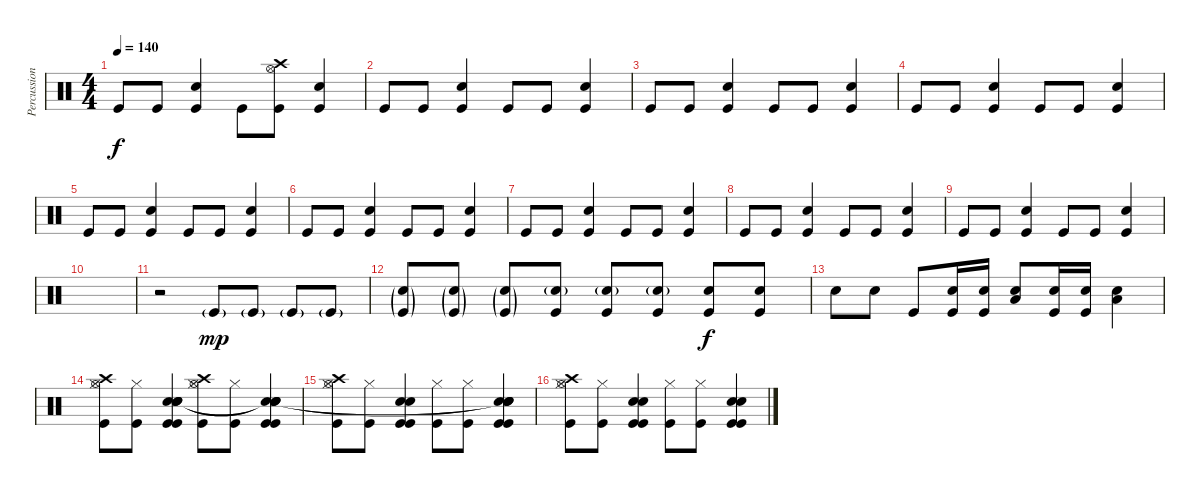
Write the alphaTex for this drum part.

\track ("Percussions" "Percussion") {instrument percussion}
\staff {score}
\articulation defaults
\ts (4 4)
\tempo 140
\clef neutral
\ks c "Kick (hit)".8{dy f} "Kick (hit)".8
("Kick (hit)" "Electric Snare (hit)").4 "Kick (hit)".8 ("Crash high (hit)" "Hi-Hat (open)" "Kick (hit)").8 ("Kick (hit)" "Electric Snare (hit)").4 |
"Kick (hit)".8 "Kick (hit)".8 ("Kick (hit)" "Electric Snare (hit)").4 "Kick (hit)".8 "Kick (hit)".8 ("Kick (hit)" "Electric Snare (hit)").4 |
"Kick (hit)".8 "Kick (hit)".8 ("Kick (hit)" "Electric Snare (hit)").4 "Kick (hit)".8 "Kick (hit)".8 ("Kick (hit)" "Electric Snare (hit)").4 |
"Kick (hit)".8 "Kick (hit)".8 ("Kick (hit)" "Electric Snare (hit)").4 "Kick (hit)".8 "Kick (hit)".8 ("Kick (hit)" "Electric Snare (hit)").4 |
"Kick (hit)".8 "Kick (hit)".8 ("Kick (hit)" "Electric Snare (hit)").4 "Kick (hit)".8 "Kick (hit)".8 ("Kick (hit)" "Electric Snare (hit)").4 |
"Kick (hit)".8 "Kick (hit)".8 ("Kick (hit)" "Electric Snare (hit)").4 "Kick (hit)".8 "Kick (hit)".8 ("Kick (hit)" "Electric Snare (hit)").4 |
"Kick (hit)".8 "Kick (hit)".8 ("Kick (hit)" "Electric Snare (hit)").4 "Kick (hit)".8 "Kick (hit)".8 ("Kick (hit)" "Electric Snare (hit)").4 |
"Kick (hit)".8 "Kick (hit)".8 ("Kick (hit)" "Electric Snare (hit)").4 "Kick (hit)".8 "Kick (hit)".8 ("Kick (hit)" "Electric Snare (hit)").4 |
"Kick (hit)".8 "Kick (hit)".8 ("Kick (hit)" "Electric Snare (hit)").4 "Kick (hit)".8 "Kick (hit)".8 ("Kick (hit)" "Electric Snare (hit)").4 |
|
r.2 "Kick (hit)"{g}.8{dy mp} "Kick (hit)"{g}.8 "Kick (hit)"{g}.8 "Kick (hit)"{g}.8 |
("Electric Snare (hit)"{g} "Kick (hit)"{g}).8 ("Electric Snare (hit)"{g} "Kick (hit)"{g}).8 ("Electric Snare (hit)"{g} "Kick (hit)"{g}).8 ("Electric Snare (hit)"{g} "Kick (hit)").8 ("Electric Snare (hit)"{g} "Kick (hit)").8 ("Electric Snare (hit)"{g} "Kick (hit)").8 ("Electric Snare (hit)" "Kick (hit)").8{dy f} ("Electric Snare (hit)" "Kick (hit)").8 |
"Electric Snare (hit)".8 "Electric Snare (hit)".8 "Kick (hit)".8 ("Electric Snare (hit)" "Kick (hit)").16 ("Electric Snare (hit)" "Kick (hit)").16 ("Electric Snare (hit)" "Low Tom (hit)").8 ("Electric Snare (hit)" "Kick (hit)").16 ("Electric Snare (hit)" "Kick (hit)").16 ("Electric Snare (hit)" "Low Tom (hit)").4 |
("Kick (hit)" "Hi-Hat (closed)" "Crash high (hit)" "Hi-Hat (open)").8 ("Kick (hit)" "Hi-Hat (closed)").8 ("Kick (hit)" "Electric Snare (hit)" "Kick (hit)" "Electric Snare (hit)" "Snare (hit)" "Snare (hit)").4 ("Kick (hit)" "Hi-Hat (closed)" "Crash high (hit)" "Hi-Hat (open)").8 ("Kick (hit)" "Hi-Hat (closed)").8 ("Kick (hit)" "Electric Snare (hit)" "Kick (hit)" "Electric Snare (hit)" "Snare (hit)"{t} "Snare (hit)"{t}).4 |
("Kick (hit)" "Hi-Hat (closed)" "Crash high (hit)" "Hi-Hat (open)").8 ("Kick (hit)" "Hi-Hat (closed)").8 ("Kick (hit)" "Electric Snare (hit)" "Kick (hit)" "Electric Snare (hit)").4 ("Kick (hit)" "Hi-Hat (closed)").8 ("Kick (hit)" "Hi-Hat (closed)").8 ("Kick (hit)" "Electric Snare (hit)" "Kick (hit)" "Electric Snare (hit)" "Snare (hit)"{t} "Snare (hit)"{t}).4 |
("Kick (hit)" "Hi-Hat (closed)" "Crash high (hit)" "Hi-Hat (open)").8 ("Kick (hit)" "Hi-Hat (closed)").8 ("Kick (hit)" "Electric Snare (hit)" "Kick (hit)" "Electric Snare (hit)").4 ("Kick (hit)" "Hi-Hat (closed)").8 ("Kick (hit)" "Hi-Hat (closed)").8 ("Kick (hit)" "Electric Snare (hit)" "Kick (hit)" "Electric Snare (hit)").4
